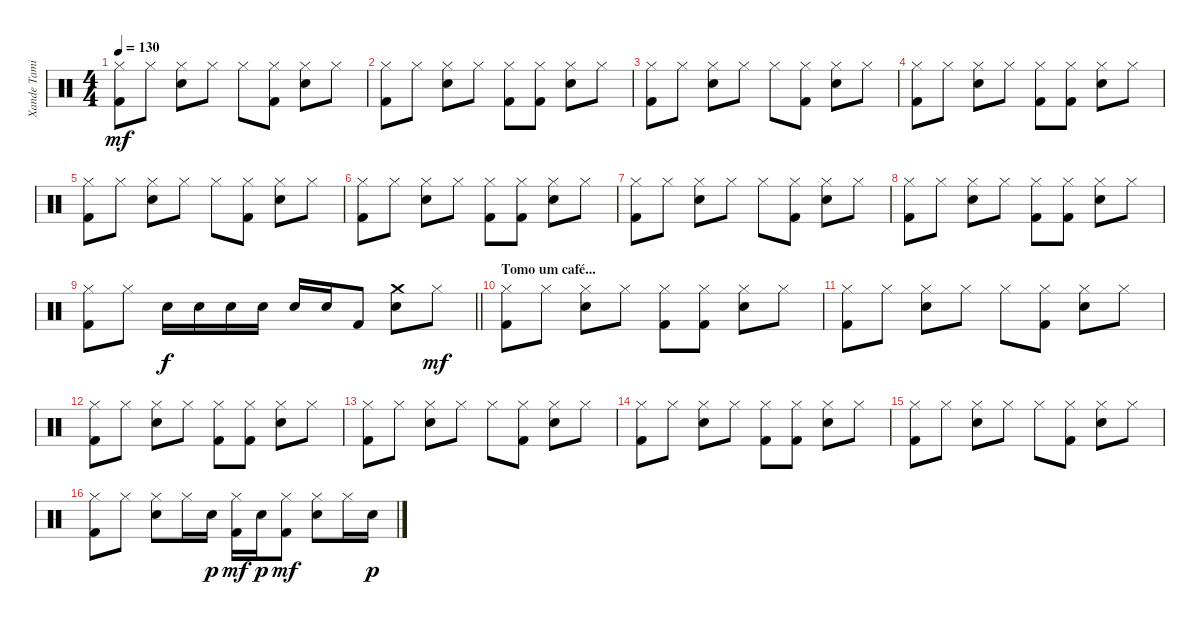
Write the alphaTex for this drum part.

\track ("Xande Tamietti" "Xande Tami") {instrument percussion}
\staff {score}
\articulation defaults
\ts (4 4)
\tempo 130
\clef neutral
\ks c
("Hi-Hat (closed)" "Kick (hit) 2").8{dy mf} "Hi-Hat (closed)".8 ("Hi-Hat (closed)" "Electric Snare (hit)").8 "Hi-Hat (closed)".8 "Hi-Hat (closed)".8 ("Hi-Hat (closed)" "Kick (hit) 2").8 ("Hi-Hat (closed)" "Electric Snare (hit)").8 "Hi-Hat (closed)".8 |
("Hi-Hat (closed)" "Kick (hit) 2").8 "Hi-Hat (closed)".8 ("Hi-Hat (closed)" "Electric Snare (hit)").8 "Hi-Hat (closed)".8 ("Hi-Hat (closed)" "Kick (hit) 2").8 ("Hi-Hat (closed)" "Kick (hit) 2").8 ("Hi-Hat (closed)" "Electric Snare (hit)").8 "Hi-Hat (closed)".8 |
("Hi-Hat (closed)" "Kick (hit) 2").8 "Hi-Hat (closed)".8 ("Hi-Hat (closed)" "Electric Snare (hit)").8 "Hi-Hat (closed)".8 "Hi-Hat (closed)".8 ("Hi-Hat (closed)" "Kick (hit) 2").8 ("Hi-Hat (closed)" "Electric Snare (hit)").8 "Hi-Hat (closed)".8 |
("Hi-Hat (closed)" "Kick (hit) 2").8 "Hi-Hat (closed)".8 ("Hi-Hat (closed)" "Electric Snare (hit)").8 "Hi-Hat (closed)".8 ("Hi-Hat (closed)" "Kick (hit) 2").8 ("Hi-Hat (closed)" "Kick (hit) 2").8 ("Hi-Hat (closed)" "Electric Snare (hit)").8 "Hi-Hat (closed)".8 |
("Hi-Hat (closed)" "Kick (hit) 2").8 "Hi-Hat (closed)".8 ("Hi-Hat (closed)" "Electric Snare (hit)").8 "Hi-Hat (closed)".8 "Hi-Hat (closed)".8 ("Hi-Hat (closed)" "Kick (hit) 2").8 ("Hi-Hat (closed)" "Electric Snare (hit)").8 "Hi-Hat (closed)".8 |
("Hi-Hat (closed)" "Kick (hit) 2").8 "Hi-Hat (closed)".8 ("Hi-Hat (closed)" "Electric Snare (hit)").8 "Hi-Hat (closed)".8 ("Hi-Hat (closed)" "Kick (hit) 2").8 ("Hi-Hat (closed)" "Kick (hit) 2").8 ("Hi-Hat (closed)" "Electric Snare (hit)").8 "Hi-Hat (closed)".8 |
("Hi-Hat (closed)" "Kick (hit) 2").8 "Hi-Hat (closed)".8 ("Hi-Hat (closed)" "Electric Snare (hit)").8 "Hi-Hat (closed)".8 "Hi-Hat (closed)".8 ("Hi-Hat (closed)" "Kick (hit) 2").8 ("Hi-Hat (closed)" "Electric Snare (hit)").8 "Hi-Hat (closed)".8 |
("Hi-Hat (closed)" "Kick (hit) 2").8 "Hi-Hat (closed)".8 ("Hi-Hat (closed)" "Electric Snare (hit)").8 "Hi-Hat (closed)".8 ("Hi-Hat (closed)" "Kick (hit) 2").8 ("Hi-Hat (closed)" "Kick (hit) 2").8 ("Hi-Hat (closed)" "Electric Snare (hit)").8 "Hi-Hat (closed)".8 |
\barLineRight lightlight
("Hi-Hat (closed)" "Kick (hit) 2").8 "Hi-Hat (closed)".8 "Electric Snare (hit)".16{dy f} "Electric Snare (hit)".16 "Electric Snare (hit)".16 "Electric Snare (hit)".16 "Electric Snare (hit)".16 "Electric Snare (hit)".16 "Kick (hit) 2".8 ("Crash medium (hit)" "Electric Snare (hit)").8 "Hi-Hat (closed)".8{dy mf} |
\section ("" "Tomo um café...")
("Hi-Hat (closed)" "Kick (hit) 2").8 "Hi-Hat (closed)".8 ("Hi-Hat (closed)" "Electric Snare (hit)").8 "Hi-Hat (closed)".8 ("Hi-Hat (closed)" "Kick (hit) 2").8 ("Hi-Hat (closed)" "Kick (hit) 2").8 ("Hi-Hat (closed)" "Electric Snare (hit)").8 "Hi-Hat (closed)".8 |
("Hi-Hat (closed)" "Kick (hit) 2").8 "Hi-Hat (closed)".8 ("Hi-Hat (closed)" "Electric Snare (hit)").8 "Hi-Hat (closed)".8 "Hi-Hat (closed)".8 ("Hi-Hat (closed)" "Kick (hit) 2").8 ("Hi-Hat (closed)" "Electric Snare (hit)").8 "Hi-Hat (closed)".8 |
("Hi-Hat (closed)" "Kick (hit) 2").8 "Hi-Hat (closed)".8 ("Hi-Hat (closed)" "Electric Snare (hit)").8 "Hi-Hat (closed)".8 ("Hi-Hat (closed)" "Kick (hit) 2").8 ("Hi-Hat (closed)" "Kick (hit) 2").8 ("Hi-Hat (closed)" "Electric Snare (hit)").8 "Hi-Hat (closed)".8 |
("Hi-Hat (closed)" "Kick (hit) 2").8 "Hi-Hat (closed)".8 ("Hi-Hat (closed)" "Electric Snare (hit)").8 "Hi-Hat (closed)".8 "Hi-Hat (closed)".8 ("Hi-Hat (closed)" "Kick (hit) 2").8 ("Hi-Hat (closed)" "Electric Snare (hit)").8 "Hi-Hat (closed)".8 |
("Hi-Hat (closed)" "Kick (hit) 2").8 "Hi-Hat (closed)".8 ("Hi-Hat (closed)" "Electric Snare (hit)").8 "Hi-Hat (closed)".8 ("Hi-Hat (closed)" "Kick (hit) 2").8 ("Hi-Hat (closed)" "Kick (hit) 2").8 ("Hi-Hat (closed)" "Electric Snare (hit)").8 "Hi-Hat (closed)".8 |
("Hi-Hat (closed)" "Kick (hit) 2").8 "Hi-Hat (closed)".8 ("Hi-Hat (closed)" "Electric Snare (hit)").8 "Hi-Hat (closed)".8 "Hi-Hat (closed)".8 ("Hi-Hat (closed)" "Kick (hit) 2").8 ("Hi-Hat (closed)" "Electric Snare (hit)").8 "Hi-Hat (closed)".8 |
("Hi-Hat (closed)" "Kick (hit) 2").8 "Hi-Hat (closed)".8 ("Hi-Hat (closed)" "Electric Snare (hit)").8 "Hi-Hat (closed)".16 "Snare (hit) 2".16{dy p} ("Hi-Hat (closed)" "Kick (hit) 2").16{dy mf} "Snare (hit) 2".16{dy p} ("Hi-Hat (closed)" "Kick (hit) 2").8{dy mf} ("Hi-Hat (closed)" "Electric Snare (hit)").8 "Hi-Hat (closed)".16 "Snare (hit) 2".16{dy p}
